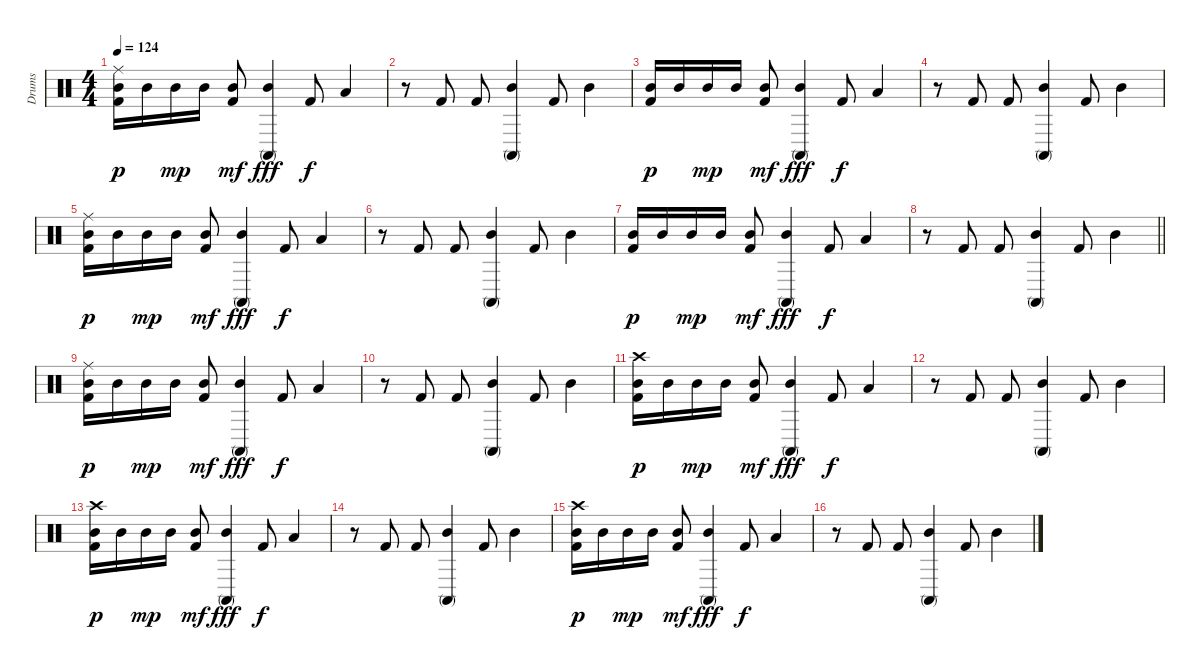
\track ("Drums" "Drums") {instrument percussion}
\staff {score}
\articulation defaults
\ts (4 4)
\tempo 124
\clef neutral
\ks c
("Ride (middle)" "Mid Tom (hit)" "Kick (hit) 2").16{dy p} "Mid Tom (hit)".16 "Mid Tom (hit)".16{dy mp} "Mid Tom (hit)".16 ("Mid Tom (hit)" "Kick (hit) 2").8{dy mf} ("Mid Tom (hit)" "Conga high (mute)").4{dy fff} "Kick (hit) 2".8{dy f} "Low Tom (hit)".4 |
r.8 "Kick (hit) 2".8 "Kick (hit) 2".8 ("Mid Tom (hit)" "Conga high (mute)").4 "Kick (hit) 2".8 "Mid Tom (hit)".4 |
("Mid Tom (hit)" "Kick (hit) 2").16{dy p} "Mid Tom (hit)".16 "Mid Tom (hit)".16{dy mp} "Mid Tom (hit)".16 ("Mid Tom (hit)" "Kick (hit) 2").8{dy mf} ("Mid Tom (hit)" "Conga high (mute)").4{dy fff} "Kick (hit) 2".8{dy f} "Low Tom (hit)".4 |
r.8 "Kick (hit) 2".8 "Kick (hit) 2".8 ("Mid Tom (hit)" "Conga high (mute)").4 "Kick (hit) 2".8 "Mid Tom (hit)".4 |
("Ride (middle)" "Mid Tom (hit)" "Kick (hit) 2").16{dy p} "Mid Tom (hit)".16 "Mid Tom (hit)".16{dy mp} "Mid Tom (hit)".16 ("Mid Tom (hit)" "Kick (hit) 2").8{dy mf} ("Mid Tom (hit)" "Conga high (mute)").4{dy fff} "Kick (hit) 2".8{dy f} "Low Tom (hit)".4 |
r.8 "Kick (hit) 2".8 "Kick (hit) 2".8 ("Mid Tom (hit)" "Conga high (mute)").4 "Kick (hit) 2".8 "Mid Tom (hit)".4 |
("Mid Tom (hit)" "Kick (hit) 2").16{dy p} "Mid Tom (hit)".16 "Mid Tom (hit)".16{dy mp} "Mid Tom (hit)".16 ("Mid Tom (hit)" "Kick (hit) 2").8{dy mf} ("Mid Tom (hit)" "Conga high (mute)").4{dy fff} "Kick (hit) 2".8{dy f} "Low Tom (hit)".4 |
\barLineRight lightlight
r.8 "Kick (hit) 2".8 "Kick (hit) 2".8 ("Mid Tom (hit)" "Conga high (mute)").4 "Kick (hit) 2".8 "Mid Tom (hit)".4 |
("Ride (middle)" "Mid Tom (hit)" "Kick (hit) 2").16{dy p} "Mid Tom (hit)".16 "Mid Tom (hit)".16{dy mp} "Mid Tom (hit)".16 ("Mid Tom (hit)" "Kick (hit) 2").8{dy mf} ("Mid Tom (hit)" "Conga high (mute)").4{dy fff} "Kick (hit) 2".8{dy f} "Low Tom (hit)".4 |
r.8 "Kick (hit) 2".8 "Kick (hit) 2".8 ("Mid Tom (hit)" "Conga high (mute)").4 "Kick (hit) 2".8 "Mid Tom (hit)".4 |
("Crash high (hit)" "Mid Tom (hit)" "Kick (hit) 2").16{dy p} "Mid Tom (hit)".16 "Mid Tom (hit)".16{dy mp} "Mid Tom (hit)".16 ("Mid Tom (hit)" "Kick (hit) 2").8{dy mf} ("Mid Tom (hit)" "Conga high (mute)").4{dy fff} "Kick (hit) 2".8{dy f} "Low Tom (hit)".4 |
r.8 "Kick (hit) 2".8 "Kick (hit) 2".8 ("Mid Tom (hit)" "Conga high (mute)").4 "Kick (hit) 2".8 "Mid Tom (hit)".4 |
("Crash high (hit)" "Mid Tom (hit)" "Kick (hit) 2").16{dy p} "Mid Tom (hit)".16 "Mid Tom (hit)".16{dy mp} "Mid Tom (hit)".16 ("Mid Tom (hit)" "Kick (hit) 2").8{dy mf} ("Mid Tom (hit)" "Conga high (mute)").4{dy fff} "Kick (hit) 2".8{dy f} "Low Tom (hit)".4 |
r.8 "Kick (hit) 2".8 "Kick (hit) 2".8 ("Mid Tom (hit)" "Conga high (mute)").4 "Kick (hit) 2".8 "Mid Tom (hit)".4 |
("Crash high (hit)" "Mid Tom (hit)" "Kick (hit) 2").16{dy p} "Mid Tom (hit)".16 "Mid Tom (hit)".16{dy mp} "Mid Tom (hit)".16 ("Mid Tom (hit)" "Kick (hit) 2").8{dy mf} ("Mid Tom (hit)" "Conga high (mute)").4{dy fff} "Kick (hit) 2".8{dy f} "Low Tom (hit)".4 |
r.8 "Kick (hit) 2".8 "Kick (hit) 2".8 ("Mid Tom (hit)" "Conga high (mute)").4 "Kick (hit) 2".8 "Mid Tom (hit)".4
